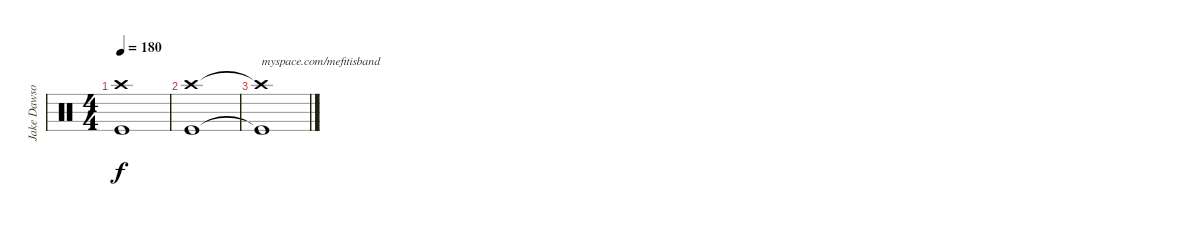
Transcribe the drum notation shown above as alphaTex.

\track ("Jake Dawson" "Jake Dawso") {instrument percussion}
\staff {score}
\articulation defaults
\ts (4 4)
\tempo 180
\clef neutral
\ks c
("Crash high (hit)"{t} "Kick (hit)"{t}).1{dy f} |
("Crash high (hit)" "Kick (hit)").1 |
("Crash high (hit)"{t} "Kick (hit)"{t}).1{txt "myspace.com/mefitisband"}
